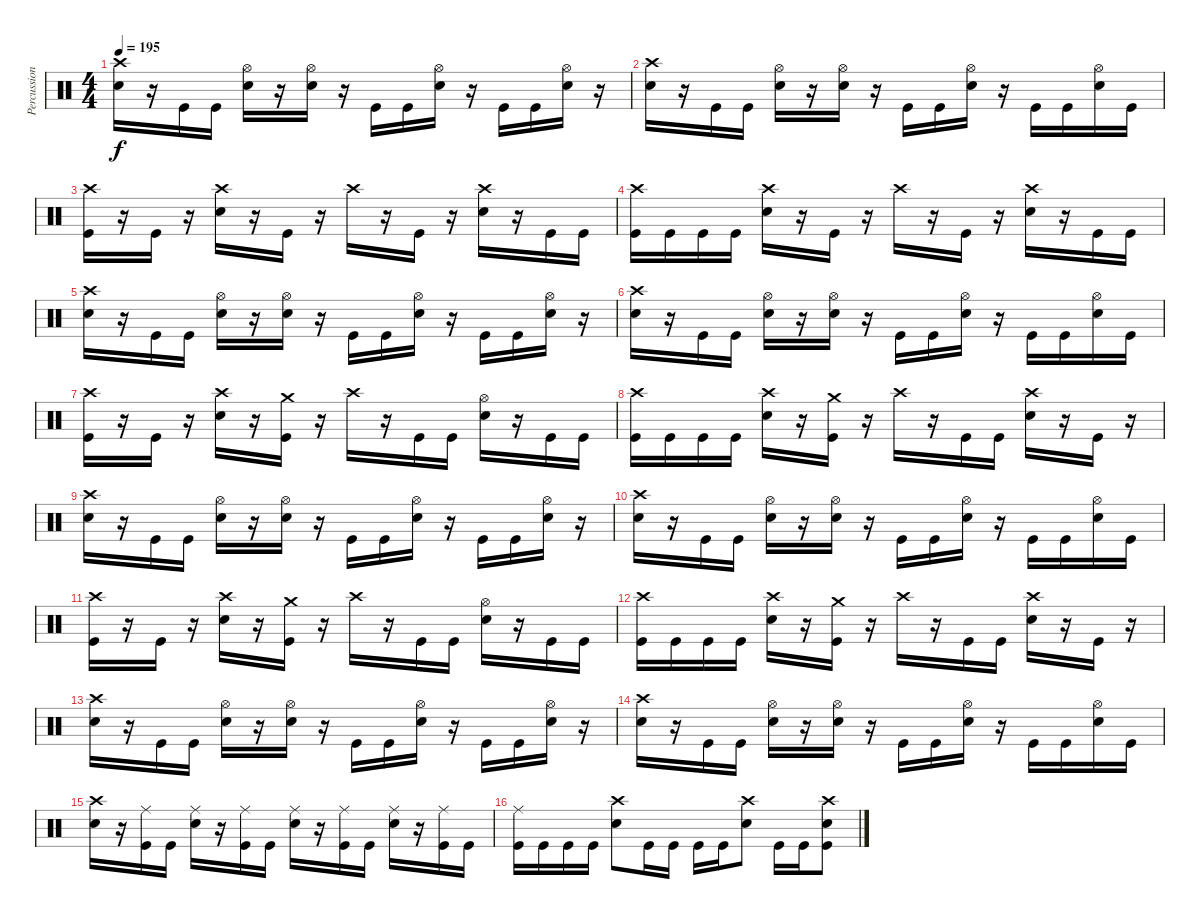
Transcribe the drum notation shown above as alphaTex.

\track ("Percussion" "Percussion") {instrument percussion}
\staff {score}
\articulation defaults
\ts (4 4)
\tempo 195
\clef neutral
\ks c
("Crash high (hit)" "Electric Snare (hit)").16{dy f} r.16 "Kick (hit)".16 "Kick (hit)".16 ("Hi-Hat (open)" "Electric Snare (hit)").16 r.16 ("Hi-Hat (open)" "Electric Snare (hit)").16 r.16 "Kick (hit)".16 "Kick (hit)".16 ("Hi-Hat (open)" "Electric Snare (hit)").16 r.16 "Kick (hit)".16 "Kick (hit)".16 ("Hi-Hat (open)" "Electric Snare (hit)").16 r.16 |
("Crash high (hit)" "Electric Snare (hit)").16 r.16 "Kick (hit)".16 "Kick (hit)".16 ("Hi-Hat (open)" "Electric Snare (hit)").16 r.16 ("Hi-Hat (open)" "Electric Snare (hit)").16 r.16 "Kick (hit)".16 "Kick (hit)".16 ("Hi-Hat (open)" "Electric Snare (hit)").16 r.16 "Kick (hit)".16 "Kick (hit)".16 ("Hi-Hat (open)" "Electric Snare (hit)").16 "Kick (hit)".16 |
("Crash high (hit)" "Kick (hit)").16 r.16 "Kick (hit)".16 r.16 ("Crash high (hit)" "Electric Snare (hit)").16 r.16 "Kick (hit)".16 r.16 "Crash high (hit)".16 r.16 "Kick (hit)".16 r.16 ("Crash high (hit)" "Electric Snare (hit)").16 r.16 "Kick (hit)".16 "Kick (hit)".16 |
("Crash high (hit)" "Kick (hit)").16 "Kick (hit)".16 "Kick (hit)".16 "Kick (hit)".16 ("Crash high (hit)" "Electric Snare (hit)").16 r.16 "Kick (hit)".16 r.16 "Crash high (hit)".16 r.16 "Kick (hit)".16 r.16 ("Crash high (hit)" "Electric Snare (hit)").16 r.16 "Kick (hit)".16 "Kick (hit)".16 |
("Crash high (hit)" "Electric Snare (hit)").16 r.16 "Kick (hit)".16 "Kick (hit)".16 ("Hi-Hat (open)" "Electric Snare (hit)").16 r.16 ("Hi-Hat (open)" "Electric Snare (hit)").16 r.16 "Kick (hit)".16 "Kick (hit)".16 ("Hi-Hat (open)" "Electric Snare (hit)").16 r.16 "Kick (hit)".16 "Kick (hit)".16 ("Hi-Hat (open)" "Electric Snare (hit)").16 r.16 |
("Crash high (hit)" "Electric Snare (hit)").16 r.16 "Kick (hit)".16 "Kick (hit)".16 ("Hi-Hat (open)" "Electric Snare (hit)").16 r.16 ("Hi-Hat (open)" "Electric Snare (hit)").16 r.16 "Kick (hit)".16 "Kick (hit)".16 ("Hi-Hat (open)" "Electric Snare (hit)").16 r.16 "Kick (hit)".16 "Kick (hit)".16 ("Hi-Hat (open)" "Electric Snare (hit)").16 "Kick (hit)".16 |
("Crash high (hit)" "Kick (hit)").16 r.16 "Kick (hit)".16 r.16 ("Crash high (hit)" "Electric Snare (hit)").16 r.16 ("Crash medium (hit)" "Kick (hit)").16 r.16 "Crash high (hit)".16 r.16 "Kick (hit)".16 "Kick (hit)".16 ("Hi-Hat (open)" "Electric Snare (hit)").16 r.16 "Kick (hit)".16 "Kick (hit)".16 |
("Crash high (hit)" "Kick (hit)").16 "Kick (hit)".16 "Kick (hit)".16 "Kick (hit)".16 ("Crash high (hit)" "Electric Snare (hit)").16 r.16 ("Crash medium (hit)" "Kick (hit)").16 r.16 "Crash high (hit)".16 r.16 "Kick (hit)".16 "Kick (hit)".16 ("Crash high (hit)" "Electric Snare (hit)").16 r.16 "Kick (hit)".16 r.16 |
("Crash high (hit)" "Electric Snare (hit)").16 r.16 "Kick (hit)".16 "Kick (hit)".16 ("Hi-Hat (open)" "Electric Snare (hit)").16 r.16 ("Hi-Hat (open)" "Electric Snare (hit)").16 r.16 "Kick (hit)".16 "Kick (hit)".16 ("Hi-Hat (open)" "Electric Snare (hit)").16 r.16 "Kick (hit)".16 "Kick (hit)".16 ("Hi-Hat (open)" "Electric Snare (hit)").16 r.16 |
("Crash high (hit)" "Electric Snare (hit)").16 r.16 "Kick (hit)".16 "Kick (hit)".16 ("Hi-Hat (open)" "Electric Snare (hit)").16 r.16 ("Hi-Hat (open)" "Electric Snare (hit)").16 r.16 "Kick (hit)".16 "Kick (hit)".16 ("Hi-Hat (open)" "Electric Snare (hit)").16 r.16 "Kick (hit)".16 "Kick (hit)".16 ("Hi-Hat (open)" "Electric Snare (hit)").16 "Kick (hit)".16 |
("Crash high (hit)" "Kick (hit)").16 r.16 "Kick (hit)".16 r.16 ("Crash high (hit)" "Electric Snare (hit)").16 r.16 ("Crash medium (hit)" "Kick (hit)").16 r.16 "Crash high (hit)".16 r.16 "Kick (hit)".16 "Kick (hit)".16 ("Hi-Hat (open)" "Electric Snare (hit)").16 r.16 "Kick (hit)".16 "Kick (hit)".16 |
("Crash high (hit)" "Kick (hit)").16 "Kick (hit)".16 "Kick (hit)".16 "Kick (hit)".16 ("Crash high (hit)" "Electric Snare (hit)").16 r.16 ("Crash medium (hit)" "Kick (hit)").16 r.16 "Crash high (hit)".16 r.16 "Kick (hit)".16 "Kick (hit)".16 ("Crash high (hit)" "Electric Snare (hit)").16 r.16 "Kick (hit)".16 r.16 |
("Crash high (hit)" "Electric Snare (hit)").16 r.16 "Kick (hit)".16 "Kick (hit)".16 ("Hi-Hat (open)" "Electric Snare (hit)").16 r.16 ("Hi-Hat (open)" "Electric Snare (hit)").16 r.16 "Kick (hit)".16 "Kick (hit)".16 ("Hi-Hat (open)" "Electric Snare (hit)").16 r.16 "Kick (hit)".16 "Kick (hit)".16 ("Hi-Hat (open)" "Electric Snare (hit)").16 r.16 |
("Crash high (hit)" "Electric Snare (hit)").16 r.16 "Kick (hit)".16 "Kick (hit)".16 ("Hi-Hat (open)" "Electric Snare (hit)").16 r.16 ("Hi-Hat (open)" "Electric Snare (hit)").16 r.16 "Kick (hit)".16 "Kick (hit)".16 ("Hi-Hat (open)" "Electric Snare (hit)").16 r.16 "Kick (hit)".16 "Kick (hit)".16 ("Hi-Hat (open)" "Electric Snare (hit)").16 "Kick (hit)".16 |
("Crash high (hit)" "Electric Snare (hit)").16 r.16 ("Ride (middle)" "Kick (hit)").16 "Kick (hit)".16 ("Ride (middle)" "Electric Snare (hit)").16 r.16 ("Ride (middle)" "Kick (hit)").16 "Kick (hit)".16 ("Ride (middle)" "Electric Snare (hit)").16 r.16 ("Ride (middle)" "Kick (hit)").16 "Kick (hit)".16 ("Ride (middle)" "Electric Snare (hit)").16 r.16 ("Ride (middle)" "Kick (hit)").16 "Kick (hit)".16 |
("Ride (middle)" "Kick (hit)").16 "Kick (hit)".16 "Kick (hit)".16 "Kick (hit)".16 ("Crash high (hit)" "Electric Snare (hit)").8 "Kick (hit)".16 "Kick (hit)".16 "Kick (hit)".16 "Kick (hit)".16 ("Crash high (hit)" "Electric Snare (hit)").8 "Kick (hit)".16 "Kick (hit)".16 ("Crash high (hit)" "Electric Snare (hit)" "Kick (hit)").8
